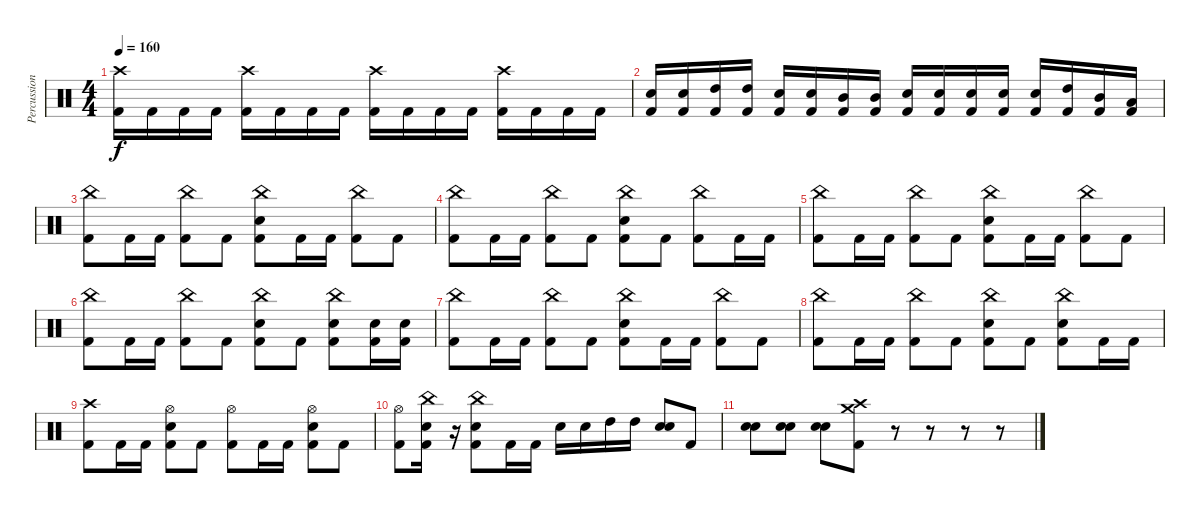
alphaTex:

\track ("Percussioni" "Percussion") {instrument percussion}
\staff {score}
\articulation defaults
\ts (4 4)
\tempo 160
\clef neutral
\ks c
("Crash high (hit)" "Kick (hit) 2").16{dy f} "Kick (hit) 2".16 "Kick (hit) 2".16 "Kick (hit) 2".16 ("Crash high (hit)" "Kick (hit) 2").16 "Kick (hit) 2".16 "Kick (hit) 2".16 "Kick (hit) 2".16 ("Crash high (hit)" "Kick (hit) 2").16 "Kick (hit) 2".16 "Kick (hit) 2".16 "Kick (hit) 2".16 ("Crash high (hit)" "Kick (hit) 2").16 "Kick (hit) 2".16 "Kick (hit) 2".16 "Kick (hit) 2".16 |
("Electric Snare (hit)" "Kick (hit) 2").16 ("Electric Snare (hit)" "Kick (hit) 2").16 ("High Tom (hit)" "Kick (hit) 2").16 ("High Tom (hit)" "Kick (hit) 2").16 ("Electric Snare (hit)" "Kick (hit) 2").16 ("Electric Snare (hit)" "Kick (hit) 2").16 ("Mid Tom (hit)" "Kick (hit) 2").16 ("Mid Tom (hit)" "Kick (hit) 2").16 ("Electric Snare (hit)" "Kick (hit) 2").16 ("Electric Snare (hit)" "Kick (hit) 2").16 ("Electric Snare (hit)" "Kick (hit) 2").16 ("Electric Snare (hit)" "Kick (hit) 2").16 ("Electric Snare (hit)" "Kick (hit) 2").16 ("High Tom (hit)" "Kick (hit) 2").16 ("Mid Tom (hit)" "Kick (hit) 2").16 ("Low Tom (hit)" "Kick (hit) 2").16 |
("China (hit)" "Kick (hit) 2").8 "Kick (hit) 2".16 "Kick (hit) 2".16 ("China (hit)" "Kick (hit) 2").8 "Kick (hit) 2".8 ("China (hit)" "Electric Snare (hit)" "Kick (hit) 2").8 "Kick (hit) 2".16 "Kick (hit) 2".16 ("China (hit)" "Kick (hit) 2").8 "Kick (hit) 2".8 |
("China (hit)" "Kick (hit) 2").8 "Kick (hit) 2".16 "Kick (hit) 2".16 ("China (hit)" "Kick (hit) 2").8 "Kick (hit) 2".8 ("China (hit)" "Electric Snare (hit)" "Kick (hit) 2").8 "Kick (hit) 2".8 ("China (hit)" "Kick (hit) 2").8 "Kick (hit) 2".16 "Kick (hit) 2".16 |
("China (hit)" "Kick (hit) 2").8 "Kick (hit) 2".16 "Kick (hit) 2".16 ("China (hit)" "Kick (hit) 2").8 "Kick (hit) 2".8 ("China (hit)" "Electric Snare (hit)" "Kick (hit) 2").8 "Kick (hit) 2".16 "Kick (hit) 2".16 ("China (hit)" "Kick (hit) 2").8 "Kick (hit) 2".8 |
("China (hit)" "Kick (hit) 2").8 "Kick (hit) 2".16 "Kick (hit) 2".16 ("China (hit)" "Kick (hit) 2").8 "Kick (hit) 2".8 ("China (hit)" "Electric Snare (hit)" "Kick (hit) 2").8 "Kick (hit) 2".8 ("China (hit)" "Electric Snare (hit)" "Kick (hit) 2").8 ("Electric Snare (hit)" "Kick (hit) 2").16 ("Electric Snare (hit)" "Kick (hit) 2").16 |
("China (hit)" "Kick (hit) 2").8 "Kick (hit) 2".16 "Kick (hit) 2".16 ("China (hit)" "Kick (hit) 2").8 "Kick (hit) 2".8 ("China (hit)" "Electric Snare (hit)" "Kick (hit) 2").8 "Kick (hit) 2".16 "Kick (hit) 2".16 ("China (hit)" "Kick (hit) 2").8 "Kick (hit) 2".8 |
("China (hit)" "Kick (hit) 2").8 "Kick (hit) 2".16 "Kick (hit) 2".16 ("China (hit)" "Kick (hit) 2").8 "Kick (hit) 2".8 ("China (hit)" "Electric Snare (hit)" "Kick (hit) 2").8 "Kick (hit) 2".8 ("China (hit)" "Electric Snare (hit)" "Kick (hit) 2").8 "Kick (hit) 2".16 "Kick (hit) 2".16 |
("Crash high (hit)" "Kick (hit) 2").8 "Kick (hit) 2".16 "Kick (hit) 2".16 ("Hi-Hat (open)" "Electric Snare (hit)" "Kick (hit) 2").8 "Kick (hit) 2".8 ("Hi-Hat (open)" "Kick (hit) 2").8 "Kick (hit) 2".16 "Kick (hit) 2".16 ("Hi-Hat (open)" "Electric Snare (hit)" "Kick (hit) 2").8 "Kick (hit) 2".8 |
("Hi-Hat (open)" "Kick (hit) 2").8 ("China (hit)" "Electric Snare (hit)" "Kick (hit) 2").16 r.16 ("China (hit)" "Electric Snare (hit)" "Kick (hit) 2").8 "Kick (hit) 2".16 "Kick (hit) 2".16 "Electric Snare (hit)".16 "Electric Snare (hit)".16 "High Tom (hit)".16 "High Tom (hit)".16 ("Electric Snare (hit)" "Electric Snare (hit)").8 "Kick (hit) 2".8 |
("Electric Snare (hit)" "Electric Snare (hit)").8 ("Electric Snare (hit)" "Electric Snare (hit)").8 ("Electric Snare (hit)" "Electric Snare (hit)").8 ("Crash medium (hit)" "Crash high (hit)" "Kick (hit) 2").8 r.8 r.8 r.8 r.8
